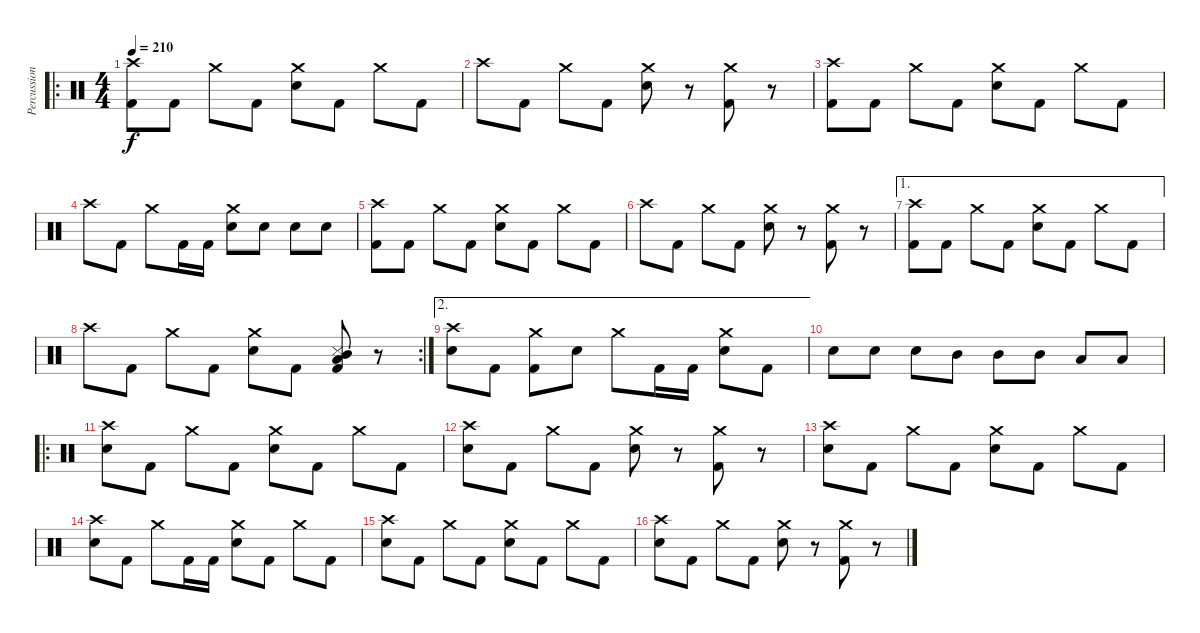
\track ("Percussions" "Percussion") {instrument percussion}
\staff {score}
\articulation defaults
\ro
\ts (4 4)
\tempo 210
\clef neutral
\ks c
("Kick (hit) 2" "Crash high (hit)").8{dy f} "Kick (hit) 2".8 "Crash medium (hit)".8 "Kick (hit) 2".8 ("Electric Snare (hit)" "Crash medium (hit)").8 "Kick (hit) 2".8 "Crash medium (hit)".8 "Kick (hit) 2".8 |
"Crash high (hit)".8 "Kick (hit) 2".8 "Crash medium (hit)".8 "Kick (hit) 2".8 ("Electric Snare (hit)" "Crash medium (hit)").8 r.8 ("Kick (hit) 2" "Crash medium (hit)").8 r.8 |
("Kick (hit) 2" "Crash high (hit)").8 "Kick (hit) 2".8 "Crash medium (hit)".8 "Kick (hit) 2".8 ("Electric Snare (hit)" "Crash medium (hit)").8 "Kick (hit) 2".8 "Crash medium (hit)".8 "Kick (hit) 2".8 |
"Crash high (hit)".8 "Kick (hit) 2".8 "Crash medium (hit)".8 "Kick (hit) 2".16 "Kick (hit) 2".16 ("Electric Snare (hit)" "Crash medium (hit)").8 "Electric Snare (hit)".8 "Electric Snare (hit)".8 "Electric Snare (hit)".8 |
("Kick (hit) 2" "Crash high (hit)").8 "Kick (hit) 2".8 "Crash medium (hit)".8 "Kick (hit) 2".8 ("Electric Snare (hit)" "Crash medium (hit)").8 "Kick (hit) 2".8 "Crash medium (hit)".8 "Kick (hit) 2".8 |
"Crash high (hit)".8 "Kick (hit) 2".8 "Crash medium (hit)".8 "Kick (hit) 2".8 ("Electric Snare (hit)" "Crash medium (hit)").8 r.8 ("Kick (hit) 2" "Crash medium (hit)").8 r.8 |
\ae 1
("Kick (hit) 2" "Crash high (hit)").8 "Kick (hit) 2".8 "Crash medium (hit)".8 "Kick (hit) 2".8 ("Electric Snare (hit)" "Crash medium (hit)").8 "Kick (hit) 2".8 "Crash medium (hit)".8 "Kick (hit) 2".8 |
\rc 2 "Crash high (hit)".8 "Kick (hit) 2".8 "Crash medium (hit)".8 "Kick (hit) 2".8
("Electric Snare (hit)" "Crash medium (hit)").8 "Kick (hit) 2".8 ("Kick (hit) 2" "Metronome (hit)" "Mid Tom (hit)" "Low Tom (hit)").8 r.8 |
\ae 2
("Electric Snare (hit)" "Crash high (hit)").8 "Kick (hit) 2".8 ("Kick (hit) 2" "Crash medium (hit)").8 "Electric Snare (hit)".8 "Crash medium (hit)".8 "Kick (hit) 2".16 "Kick (hit) 2".16 ("Electric Snare (hit)" "Crash medium (hit)").8 "Kick (hit) 2".8 |
"Electric Snare (hit)".8 "Electric Snare (hit)".8 "Electric Snare (hit)".8 "Mid Tom (hit)".8 "Mid Tom (hit)".8 "Mid Tom (hit)".8 "Low Tom (hit)".8 "Low Tom (hit)".8 |
\ro
("Electric Snare (hit)" "Crash high (hit)").8 "Kick (hit) 2".8 "Crash medium (hit)".8 "Kick (hit) 2".8 ("Electric Snare (hit)" "Crash medium (hit)").8 "Kick (hit) 2".8 "Crash medium (hit)".8 "Kick (hit) 2".8 |
("Electric Snare (hit)" "Crash high (hit)").8 "Kick (hit) 2".8 "Crash medium (hit)".8 "Kick (hit) 2".8 ("Electric Snare (hit)" "Crash medium (hit)").8 r.8 ("Kick (hit) 2" "Crash medium (hit)").8 r.8 |
("Electric Snare (hit)" "Crash high (hit)").8 "Kick (hit) 2".8 "Crash medium (hit)".8 "Kick (hit) 2".8 ("Electric Snare (hit)" "Crash medium (hit)").8 "Kick (hit) 2".8 "Crash medium (hit)".8 "Kick (hit) 2".8 |
("Electric Snare (hit)" "Crash high (hit)").8 "Kick (hit) 2".8 "Crash medium (hit)".8 "Kick (hit) 2".16 "Kick (hit) 2".16 ("Electric Snare (hit)" "Crash medium (hit)").8 "Kick (hit) 2".8 "Crash medium (hit)".8 "Kick (hit) 2".8 |
("Electric Snare (hit)" "Crash high (hit)").8 "Kick (hit) 2".8 "Crash medium (hit)".8 "Kick (hit) 2".8 ("Electric Snare (hit)" "Crash medium (hit)").8 "Kick (hit) 2".8 "Crash medium (hit)".8 "Kick (hit) 2".8 |
("Electric Snare (hit)" "Crash high (hit)").8 "Kick (hit) 2".8 "Crash medium (hit)".8 "Kick (hit) 2".8 ("Electric Snare (hit)" "Crash medium (hit)").8 r.8 ("Kick (hit) 2" "Crash medium (hit)").8 r.8
